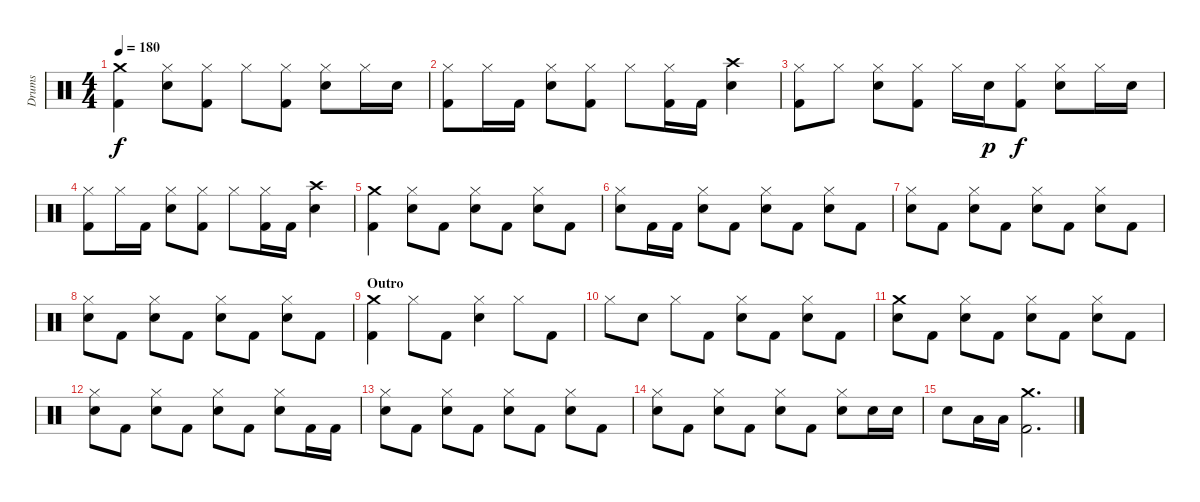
\bracketExtendMode groupsimilarinstruments
\track ("Drumkit" "Drums") {solo instrument percussion}
\staff {score}
\articulation defaults
\ts (4 4)
\tempo 180
\clef neutral
\ks c
("Crash medium (hit)" "Kick (hit) 2").4{dy f} ("Hi-Hat (closed)" "Snare (hit) 2").8 ("Hi-Hat (closed)" "Kick (hit) 2").8 "Hi-Hat (closed)".8 ("Hi-Hat (closed)" "Kick (hit) 2").8 ("Hi-Hat (closed)" "Snare (hit) 2").8 "Hi-Hat (closed)".16 "Snare (hit) 2".16 |
("Hi-Hat (closed)" "Kick (hit) 2").8 "Hi-Hat (closed)".16 "Kick (hit) 2".16 ("Hi-Hat (closed)" "Snare (hit) 2").8 ("Hi-Hat (closed)" "Kick (hit) 2").8 "Hi-Hat (closed)".8 ("Hi-Hat (closed)" "Kick (hit) 2").16 "Kick (hit) 2".16 ("Crash high (hit)" "Snare (hit) 2").4 |
("Hi-Hat (closed)" "Kick (hit) 2").8 "Hi-Hat (closed)".8 ("Hi-Hat (closed)" "Snare (hit) 2").8 ("Hi-Hat (closed)" "Kick (hit) 2").8 "Hi-Hat (closed)".16 "Snare (hit) 2".16{dy p} ("Hi-Hat (closed)" "Kick (hit) 2").8{dy f} ("Hi-Hat (closed)" "Snare (hit) 2").8 "Hi-Hat (closed)".16 "Snare (hit) 2".16 |
("Hi-Hat (closed)" "Kick (hit) 2").8 "Hi-Hat (closed)".16 "Kick (hit) 2".16 ("Hi-Hat (closed)" "Snare (hit) 2").8 ("Hi-Hat (closed)" "Kick (hit) 2").8 "Hi-Hat (closed)".8 ("Hi-Hat (closed)" "Kick (hit) 2").16 "Kick (hit) 2".16 ("Crash high (hit)" "Snare (hit) 2").4 |
("Crash medium (hit)" "Kick (hit) 2").4 ("Hi-Hat (closed)" "Snare (hit) 2").8 "Kick (hit) 2".8 ("Hi-Hat (closed)" "Snare (hit) 2").8 "Kick (hit) 2".8 ("Hi-Hat (closed)" "Snare (hit) 2").8 "Kick (hit) 2".8 |
("Hi-Hat (closed)" "Snare (hit) 2").8 "Kick (hit) 2".16 "Kick (hit) 2".16 ("Hi-Hat (closed)" "Snare (hit) 2").8 "Kick (hit) 2".8 ("Hi-Hat (closed)" "Snare (hit) 2").8 "Kick (hit) 2".8 ("Hi-Hat (closed)" "Snare (hit) 2").8 "Kick (hit) 2".8 |
("Hi-Hat (closed)" "Snare (hit) 2").8 "Kick (hit) 2".8 ("Hi-Hat (closed)" "Snare (hit) 2").8 "Kick (hit) 2".8 ("Hi-Hat (closed)" "Snare (hit) 2").8 "Kick (hit) 2".8 ("Hi-Hat (closed)" "Snare (hit) 2").8 "Kick (hit) 2".8 |
("Hi-Hat (closed)" "Snare (hit) 2").8 "Kick (hit) 2".8 ("Hi-Hat (closed)" "Snare (hit) 2").8 "Kick (hit) 2".8 ("Hi-Hat (closed)" "Snare (hit) 2").8 "Kick (hit) 2".8 ("Hi-Hat (closed)" "Snare (hit) 2").8 "Kick (hit) 2".8 |
\section ("" "Outro")
("Crash medium (hit)" "Kick (hit) 2").4 "Hi-Hat (closed)".8 "Kick (hit) 2".8 ("Hi-Hat (closed)" "Snare (hit) 2").4 "Hi-Hat (closed)".8 "Kick (hit) 2".8 |
"Hi-Hat (closed)".8 "Snare (hit) 2".8 "Hi-Hat (closed)".8 "Kick (hit) 2".8 ("Hi-Hat (closed)" "Snare (hit) 2").8 "Kick (hit) 2".8 ("Hi-Hat (closed)" "Snare (hit) 2").8 "Kick (hit) 2".8 |
("Crash medium (hit)" "Snare (hit) 2").8 "Kick (hit) 2".8 ("Hi-Hat (closed)" "Snare (hit) 2").8 "Kick (hit) 2".8 ("Hi-Hat (closed)" "Snare (hit) 2").8 "Kick (hit) 2".8 ("Hi-Hat (closed)" "Snare (hit) 2").8 "Kick (hit) 2".8 |
("Hi-Hat (closed)" "Snare (hit) 2").8 "Kick (hit) 2".8 ("Hi-Hat (closed)" "Snare (hit) 2").8 "Kick (hit) 2".8 ("Hi-Hat (closed)" "Snare (hit) 2").8 "Kick (hit) 2".8 ("Hi-Hat (closed)" "Snare (hit) 2").8 "Kick (hit) 2".16 "Kick (hit) 2".16 |
("Hi-Hat (closed)" "Snare (hit) 2").8 "Kick (hit) 2".8 ("Hi-Hat (closed)" "Snare (hit) 2").8 "Kick (hit) 2".8 ("Hi-Hat (closed)" "Snare (hit) 2").8 "Kick (hit) 2".8 ("Hi-Hat (closed)" "Snare (hit) 2").8 "Kick (hit) 2".8 |
("Hi-Hat (closed)" "Snare (hit) 2").8 "Kick (hit) 2".8 ("Hi-Hat (closed)" "Snare (hit) 2").8 "Kick (hit) 2".8 ("Hi-Hat (closed)" "Snare (hit) 2").8 "Kick (hit) 2".8 ("Hi-Hat (closed)" "Snare (hit) 2").8 "Snare (hit) 2".16 "Snare (hit) 2".16 |
"Snare (hit) 2".8 "Low Tom (hit)".16 "Low Tom (hit)".16 ("Crash medium (hit)" "Kick (hit) 2").2{d}
